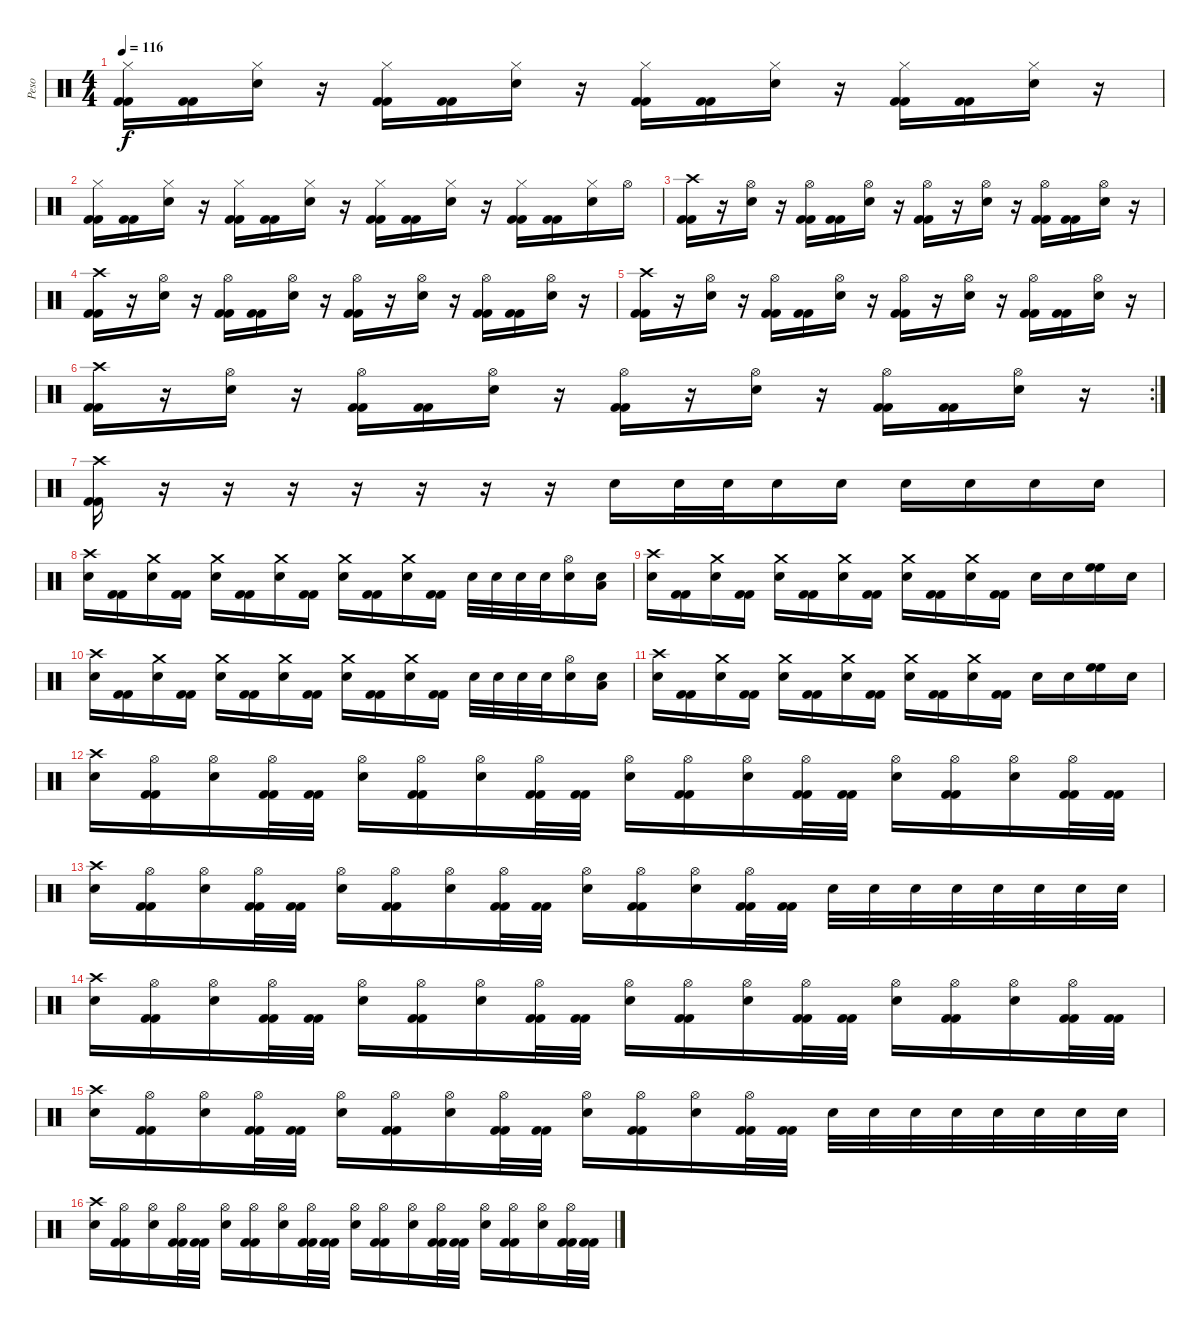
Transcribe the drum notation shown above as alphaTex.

\track ("Peso" "Peso") {instrument percussion}
\staff {score}
\articulation defaults
\ts (4 4)
\tempo 116
\clef neutral
\ks c
("Hi-Hat (closed)" "Kick (hit) 2" "Kick (hit) 2").16{dy f} ("Kick (hit) 2" "Kick (hit) 2").16 ("Hi-Hat (closed)" "Snare (hit) 2").16 r.16 ("Hi-Hat (closed)" "Kick (hit) 2" "Kick (hit) 2").16 ("Kick (hit) 2" "Kick (hit) 2").16 ("Hi-Hat (closed)" "Snare (hit) 2").16 r.16 ("Hi-Hat (closed)" "Kick (hit) 2" "Kick (hit) 2").16 ("Kick (hit) 2" "Kick (hit) 2").16 ("Hi-Hat (closed)" "Snare (hit) 2").16 r.16 ("Hi-Hat (closed)" "Kick (hit) 2" "Kick (hit) 2").16 ("Kick (hit) 2" "Kick (hit) 2").16 ("Hi-Hat (closed)" "Snare (hit) 2").16 r.16 |
("Hi-Hat (closed)" "Kick (hit) 2" "Kick (hit) 2").16 ("Kick (hit) 2" "Kick (hit) 2").16 ("Hi-Hat (closed)" "Snare (hit) 2").16 r.16 ("Hi-Hat (closed)" "Kick (hit) 2" "Kick (hit) 2").16 ("Kick (hit) 2" "Kick (hit) 2").16 ("Hi-Hat (closed)" "Snare (hit) 2").16 r.16 ("Hi-Hat (closed)" "Kick (hit) 2" "Kick (hit) 2").16 ("Kick (hit) 2" "Kick (hit) 2").16 ("Hi-Hat (closed)" "Snare (hit) 2").16 r.16 ("Hi-Hat (closed)" "Kick (hit) 2" "Kick (hit) 2").16 ("Kick (hit) 2" "Kick (hit) 2").16 ("Hi-Hat (closed)" "Snare (hit) 2").16 "Hi-Hat (open)".16 |
("Crash high (hit)" "Kick (hit) 2" "Kick (hit) 2").16 r.16 ("Hi-Hat (open)" "Snare (hit) 2").16 r.16 ("Hi-Hat (open)" "Kick (hit) 2" "Kick (hit) 2").16 ("Kick (hit) 2" "Kick (hit) 2").16 ("Hi-Hat (open)" "Snare (hit) 2").16 r.16 ("Hi-Hat (open)" "Kick (hit) 2" "Kick (hit) 2").16 r.16 ("Hi-Hat (open)" "Snare (hit) 2").16 r.16 ("Hi-Hat (open)" "Kick (hit) 2" "Kick (hit) 2").16 ("Kick (hit) 2" "Kick (hit) 2").16 ("Hi-Hat (open)" "Snare (hit) 2").16 r.16 |
("Crash high (hit)" "Kick (hit) 2" "Kick (hit) 2").16 r.16 ("Hi-Hat (open)" "Snare (hit) 2").16 r.16 ("Hi-Hat (open)" "Kick (hit) 2" "Kick (hit) 2").16 ("Kick (hit) 2" "Kick (hit) 2").16 ("Hi-Hat (open)" "Snare (hit) 2").16 r.16 ("Hi-Hat (open)" "Kick (hit) 2" "Kick (hit) 2").16 r.16 ("Hi-Hat (open)" "Snare (hit) 2").16 r.16 ("Hi-Hat (open)" "Kick (hit) 2" "Kick (hit) 2").16 ("Kick (hit) 2" "Kick (hit) 2").16 ("Hi-Hat (open)" "Snare (hit) 2").16 r.16 |
("Crash high (hit)" "Kick (hit) 2" "Kick (hit) 2").16 r.16 ("Hi-Hat (open)" "Snare (hit) 2").16 r.16 ("Hi-Hat (open)" "Kick (hit) 2" "Kick (hit) 2").16 ("Kick (hit) 2" "Kick (hit) 2").16 ("Hi-Hat (open)" "Snare (hit) 2").16 r.16 ("Hi-Hat (open)" "Kick (hit) 2" "Kick (hit) 2").16 r.16 ("Hi-Hat (open)" "Snare (hit) 2").16 r.16 ("Hi-Hat (open)" "Kick (hit) 2" "Kick (hit) 2").16 ("Kick (hit) 2" "Kick (hit) 2").16 ("Hi-Hat (open)" "Snare (hit) 2").16 r.16 |
\rc 2
("Crash high (hit)" "Kick (hit) 2" "Kick (hit) 2").16 r.16 ("Hi-Hat (open)" "Snare (hit) 2").16 r.16 ("Hi-Hat (open)" "Kick (hit) 2" "Kick (hit) 2").16 ("Kick (hit) 2" "Kick (hit) 2").16 ("Hi-Hat (open)" "Snare (hit) 2").16 r.16 ("Hi-Hat (open)" "Kick (hit) 2" "Kick (hit) 2").16 r.16 ("Hi-Hat (open)" "Snare (hit) 2").16 r.16 ("Hi-Hat (open)" "Kick (hit) 2" "Kick (hit) 2").16 ("Kick (hit) 2" "Kick (hit) 2").16 ("Hi-Hat (open)" "Snare (hit) 2").16 r.16 |
("Crash high (hit)" "Kick (hit) 2" "Kick (hit) 2").16 r.16 r.16 r.16 r.16 r.16 r.16 r.16 "Snare (hit) 2".16 "Snare (hit) 2".32 "Snare (hit) 2".32 "Snare (hit) 2".16 "Snare (hit) 2".16 "Snare (hit) 2".16 "Snare (hit) 2".16 "Snare (hit) 2".16 "Snare (hit) 2".16 |
("Crash high (hit)" "Snare (hit) 2").16 ("Kick (hit) 2" "Kick (hit) 2").16 ("Crash medium (hit)" "Snare (hit) 2").16 ("Kick (hit) 2" "Kick (hit) 2").16 ("Crash medium (hit)" "Snare (hit) 2").16 ("Kick (hit) 2" "Kick (hit) 2").16 ("Crash medium (hit)" "Snare (hit) 2").16 ("Kick (hit) 2" "Kick (hit) 2").16 ("Crash medium (hit)" "Snare (hit) 2").16 ("Kick (hit) 2" "Kick (hit) 2").16 ("Crash medium (hit)" "Snare (hit) 2").16 ("Kick (hit) 2" "Kick (hit) 2").16 "Snare (hit) 2".32 "Snare (hit) 2".32 "Snare (hit) 2".32 "Snare (hit) 2".32 ("Hi-Hat (open)" "Snare (hit) 2").16{volume 16} ("Low Floor Tom (hit)" "Snare (hit) 2").16 |
("Crash high (hit)" "Snare (hit) 2").16 ("Kick (hit) 2" "Kick (hit) 2").16 ("Crash medium (hit)" "Snare (hit) 2").16 ("Kick (hit) 2" "Kick (hit) 2").16 ("Crash medium (hit)" "Snare (hit) 2").16 ("Kick (hit) 2" "Kick (hit) 2").16 ("Crash medium (hit)" "Snare (hit) 2").16 ("Kick (hit) 2" "Kick (hit) 2").16 ("Crash medium (hit)" "Snare (hit) 2").16 ("Kick (hit) 2" "Kick (hit) 2").16 ("Crash medium (hit)" "Snare (hit) 2").16 ("Kick (hit) 2" "Kick (hit) 2").16 "Snare (hit) 2".16 "Snare (hit) 2".16 ("High Floor Tom (hit)" "High Floor Tom (hit)").16{volume 16} "Snare (hit) 2".16{volume 15} |
("Crash high (hit)" "Snare (hit) 2").16 ("Kick (hit) 2" "Kick (hit) 2").16 ("Crash medium (hit)" "Snare (hit) 2").16 ("Kick (hit) 2" "Kick (hit) 2").16 ("Crash medium (hit)" "Snare (hit) 2").16 ("Kick (hit) 2" "Kick (hit) 2").16 ("Crash medium (hit)" "Snare (hit) 2").16 ("Kick (hit) 2" "Kick (hit) 2").16 ("Crash medium (hit)" "Snare (hit) 2").16 ("Kick (hit) 2" "Kick (hit) 2").16 ("Crash medium (hit)" "Snare (hit) 2").16 ("Kick (hit) 2" "Kick (hit) 2").16 "Snare (hit) 2".32 "Snare (hit) 2".32 "Snare (hit) 2".32 "Snare (hit) 2".32 ("Hi-Hat (open)" "Snare (hit) 2").16{volume 16} ("Low Floor Tom (hit)" "Snare (hit) 2").16 |
("Crash high (hit)" "Snare (hit) 2").16 ("Kick (hit) 2" "Kick (hit) 2").16 ("Crash medium (hit)" "Snare (hit) 2").16 ("Kick (hit) 2" "Kick (hit) 2").16 ("Crash medium (hit)" "Snare (hit) 2").16 ("Kick (hit) 2" "Kick (hit) 2").16 ("Crash medium (hit)" "Snare (hit) 2").16 ("Kick (hit) 2" "Kick (hit) 2").16 ("Crash medium (hit)" "Snare (hit) 2").16 ("Kick (hit) 2" "Kick (hit) 2").16 ("Crash medium (hit)" "Snare (hit) 2").16 ("Kick (hit) 2" "Kick (hit) 2").16 "Snare (hit) 2".16 "Snare (hit) 2".16 ("High Floor Tom (hit)" "High Floor Tom (hit)").16 "Snare (hit) 2".16 |
("Crash high (hit)" "Snare (hit) 2").16 ("Hi-Hat (open)" "Kick (hit) 2" "Kick (hit) 2").16 ("Hi-Hat (open)" "Snare (hit) 2").16 ("Hi-Hat (open)" "Kick (hit) 2" "Kick (hit) 2").32 ("Kick (hit) 2" "Kick (hit) 2").32 ("Hi-Hat (open)" "Snare (hit) 2").16 ("Hi-Hat (open)" "Kick (hit) 2" "Kick (hit) 2").16 ("Hi-Hat (open)" "Snare (hit) 2").16 ("Hi-Hat (open)" "Kick (hit) 2" "Kick (hit) 2").32 ("Kick (hit) 2" "Kick (hit) 2").32 ("Hi-Hat (open)" "Snare (hit) 2").16 ("Hi-Hat (open)" "Kick (hit) 2" "Kick (hit) 2").16 ("Hi-Hat (open)" "Snare (hit) 2").16 ("Hi-Hat (open)" "Kick (hit) 2" "Kick (hit) 2").32 ("Kick (hit) 2" "Kick (hit) 2").32 ("Hi-Hat (open)" "Snare (hit) 2").16 ("Hi-Hat (open)" "Kick (hit) 2" "Kick (hit) 2").16 ("Hi-Hat (open)" "Snare (hit) 2").16 ("Hi-Hat (open)" "Kick (hit) 2" "Kick (hit) 2").32 ("Kick (hit) 2" "Kick (hit) 2").32 |
("Crash high (hit)" "Snare (hit) 2").16 ("Hi-Hat (open)" "Kick (hit) 2" "Kick (hit) 2").16 ("Hi-Hat (open)" "Snare (hit) 2").16 ("Hi-Hat (open)" "Kick (hit) 2" "Kick (hit) 2").32 ("Kick (hit) 2" "Kick (hit) 2").32 ("Hi-Hat (open)" "Snare (hit) 2").16 ("Hi-Hat (open)" "Kick (hit) 2" "Kick (hit) 2").16 ("Hi-Hat (open)" "Snare (hit) 2").16 ("Hi-Hat (open)" "Kick (hit) 2" "Kick (hit) 2").32 ("Kick (hit) 2" "Kick (hit) 2").32 ("Hi-Hat (open)" "Snare (hit) 2").16 ("Hi-Hat (open)" "Kick (hit) 2" "Kick (hit) 2").16 ("Hi-Hat (open)" "Snare (hit) 2").16 ("Hi-Hat (open)" "Kick (hit) 2" "Kick (hit) 2").32 ("Kick (hit) 2" "Kick (hit) 2").32 "Snare (hit) 2".32 "Snare (hit) 2".32 "Snare (hit) 2".32 "Snare (hit) 2".32 "Snare (hit) 2".32 "Snare (hit) 2".32 "Snare (hit) 2".32 "Snare (hit) 2".32 |
("Crash high (hit)" "Snare (hit) 2").16 ("Hi-Hat (open)" "Kick (hit) 2" "Kick (hit) 2").16 ("Hi-Hat (open)" "Snare (hit) 2").16 ("Hi-Hat (open)" "Kick (hit) 2" "Kick (hit) 2").32 ("Kick (hit) 2" "Kick (hit) 2").32 ("Hi-Hat (open)" "Snare (hit) 2").16 ("Hi-Hat (open)" "Kick (hit) 2" "Kick (hit) 2").16 ("Hi-Hat (open)" "Snare (hit) 2").16 ("Hi-Hat (open)" "Kick (hit) 2" "Kick (hit) 2").32 ("Kick (hit) 2" "Kick (hit) 2").32 ("Hi-Hat (open)" "Snare (hit) 2").16 ("Hi-Hat (open)" "Kick (hit) 2" "Kick (hit) 2").16 ("Hi-Hat (open)" "Snare (hit) 2").16 ("Hi-Hat (open)" "Kick (hit) 2" "Kick (hit) 2").32 ("Kick (hit) 2" "Kick (hit) 2").32 ("Hi-Hat (open)" "Snare (hit) 2").16 ("Hi-Hat (open)" "Kick (hit) 2" "Kick (hit) 2").16 ("Hi-Hat (open)" "Snare (hit) 2").16 ("Hi-Hat (open)" "Kick (hit) 2" "Kick (hit) 2").32 ("Kick (hit) 2" "Kick (hit) 2").32 |
("Crash high (hit)" "Snare (hit) 2").16 ("Hi-Hat (open)" "Kick (hit) 2" "Kick (hit) 2").16 ("Hi-Hat (open)" "Snare (hit) 2").16 ("Hi-Hat (open)" "Kick (hit) 2" "Kick (hit) 2").32 ("Kick (hit) 2" "Kick (hit) 2").32 ("Hi-Hat (open)" "Snare (hit) 2").16 ("Hi-Hat (open)" "Kick (hit) 2" "Kick (hit) 2").16 ("Hi-Hat (open)" "Snare (hit) 2").16 ("Hi-Hat (open)" "Kick (hit) 2" "Kick (hit) 2").32 ("Kick (hit) 2" "Kick (hit) 2").32 ("Hi-Hat (open)" "Snare (hit) 2").16 ("Hi-Hat (open)" "Kick (hit) 2" "Kick (hit) 2").16 ("Hi-Hat (open)" "Snare (hit) 2").16 ("Hi-Hat (open)" "Kick (hit) 2" "Kick (hit) 2").32 ("Kick (hit) 2" "Kick (hit) 2").32 "Snare (hit) 2".32 "Snare (hit) 2".32 "Snare (hit) 2".32 "Snare (hit) 2".32 "Snare (hit) 2".32 "Snare (hit) 2".32 "Snare (hit) 2".32 "Snare (hit) 2".32 |
("Crash high (hit)" "Snare (hit) 2").16 ("Hi-Hat (open)" "Kick (hit) 2" "Kick (hit) 2").16 ("Hi-Hat (open)" "Snare (hit) 2").16 ("Hi-Hat (open)" "Kick (hit) 2" "Kick (hit) 2").32 ("Kick (hit) 2" "Kick (hit) 2").32 ("Hi-Hat (open)" "Snare (hit) 2").16 ("Hi-Hat (open)" "Kick (hit) 2" "Kick (hit) 2").16 ("Hi-Hat (open)" "Snare (hit) 2").16 ("Hi-Hat (open)" "Kick (hit) 2" "Kick (hit) 2").32 ("Kick (hit) 2" "Kick (hit) 2").32 ("Hi-Hat (open)" "Snare (hit) 2").16 ("Hi-Hat (open)" "Kick (hit) 2" "Kick (hit) 2").16 ("Hi-Hat (open)" "Snare (hit) 2").16 ("Hi-Hat (open)" "Kick (hit) 2" "Kick (hit) 2").32 ("Kick (hit) 2" "Kick (hit) 2").32 ("Hi-Hat (open)" "Snare (hit) 2").16 ("Hi-Hat (open)" "Kick (hit) 2" "Kick (hit) 2").16 ("Hi-Hat (open)" "Snare (hit) 2").16 ("Hi-Hat (open)" "Kick (hit) 2" "Kick (hit) 2").32 ("Kick (hit) 2" "Kick (hit) 2").32
